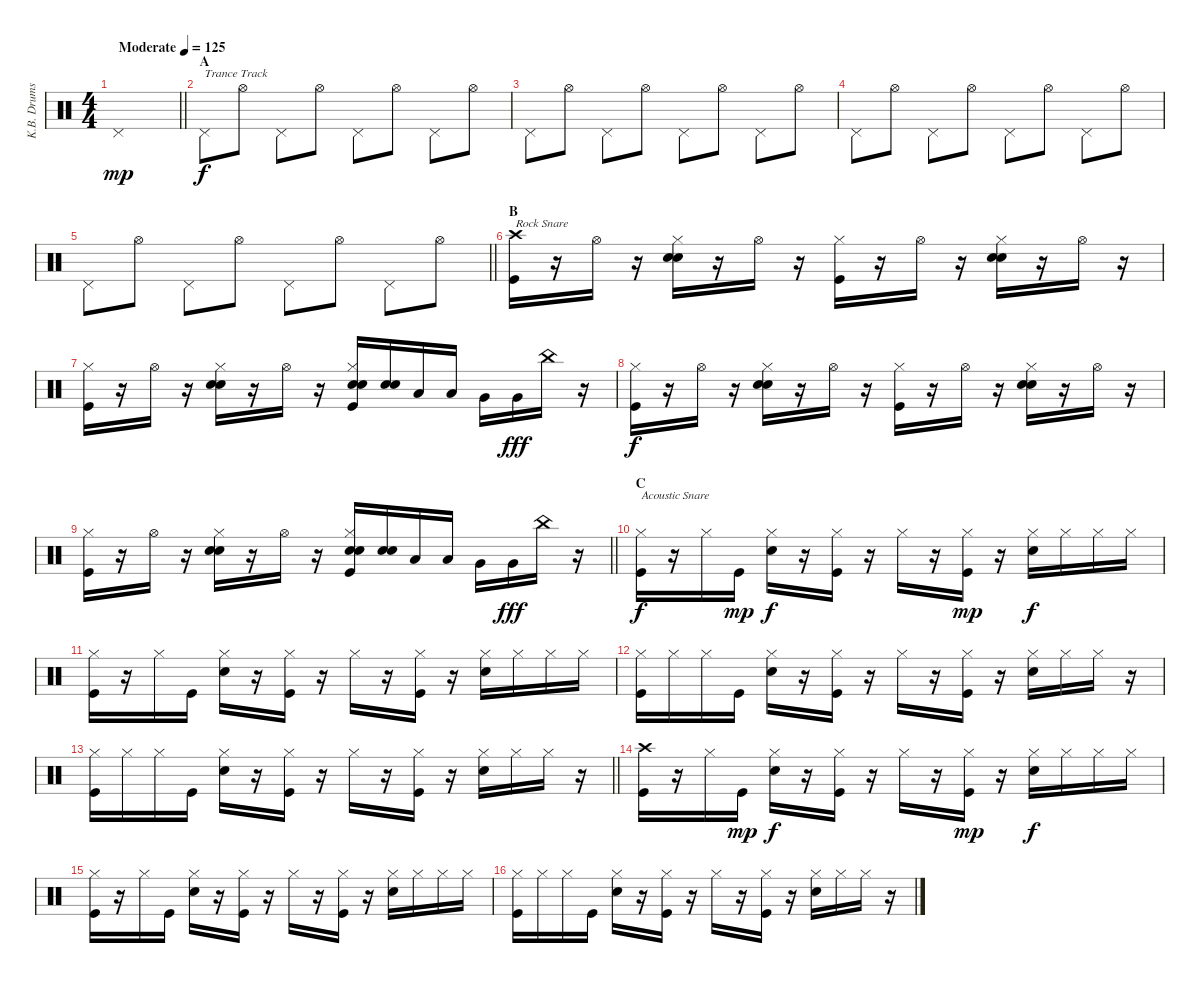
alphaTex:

\track ("K.B. Drums" "K.B. Drums") {instrument percussion}
\staff {score}
\articulation defaults
\ts (4 4)
\tempo (125 "Moderate")
\clef neutral
\barLineRight lightlight
\ks c "Pedal Hi-Hat (hit)".1{dy mp}
|
\section ("" "A")
"Pedal Hi-Hat (hit)".8{txt "Trance Track" dy f} "Hi-Hat (open)".8 "Pedal Hi-Hat (hit)".8 "Hi-Hat (open)".8 "Pedal Hi-Hat (hit)".8 "Hi-Hat (open)".8 "Pedal Hi-Hat (hit)".8 "Hi-Hat (open)".8 |
"Pedal Hi-Hat (hit)".8 "Hi-Hat (open)".8 "Pedal Hi-Hat (hit)".8 "Hi-Hat (open)".8 "Pedal Hi-Hat (hit)".8 "Hi-Hat (open)".8 "Pedal Hi-Hat (hit)".8 "Hi-Hat (open)".8 |
"Pedal Hi-Hat (hit)".8 "Hi-Hat (open)".8 "Pedal Hi-Hat (hit)".8 "Hi-Hat (open)".8 "Pedal Hi-Hat (hit)".8 "Hi-Hat (open)".8 "Pedal Hi-Hat (hit)".8 "Hi-Hat (open)".8 |
\barLineRight lightlight "Pedal Hi-Hat (hit)".8 "Hi-Hat (open)".8 "Pedal Hi-Hat (hit)".8 "Hi-Hat (open)".8 "Pedal Hi-Hat (hit)".8 "Hi-Hat (open)".8 "Pedal Hi-Hat (hit)".8 "Hi-Hat (open)".8
|
\section ("" "B")
("Crash high (hit)" "Kick (hit)").16{txt "Rock Snare"} r.16 "Hi-Hat (open)".16 r.16 ("Hi-Hat (closed)" "Snare (hit) 2" "Electric Snare (hit)").16 r.16 "Hi-Hat (open)".16 r.16 ("Hi-Hat (closed)" "Kick (hit)").16 r.16 "Hi-Hat (open)".16 r.16 ("Hi-Hat (closed)" "Snare (hit) 2" "Electric Snare (hit)").16 r.16 "Hi-Hat (open)".16 r.16 |
("Hi-Hat (closed)" "Kick (hit)").16 r.16 "Hi-Hat (open)".16 r.16 ("Hi-Hat (closed)" "Snare (hit) 2" "Electric Snare (hit)").16 r.16 "Hi-Hat (open)".16 r.16 ("Hi-Hat (closed)" "Snare (hit) 2" "Electric Snare (hit)" "Kick (hit)").16 ("Snare (hit) 2" "Electric Snare (hit)").16 "Low Tom (hit)".16 "Low Tom (hit)".16 "Very Low Tom (hit)".16 "Very Low Tom (hit)".16{dy fff} "China (hit)".16 r.16 |
("Hi-Hat (closed)" "Kick (hit)").16{dy f} r.16 "Hi-Hat (open)".16 r.16 ("Hi-Hat (closed)" "Snare (hit) 2" "Electric Snare (hit)").16 r.16 "Hi-Hat (open)".16 r.16 ("Hi-Hat (closed)" "Kick (hit)").16 r.16 "Hi-Hat (open)".16 r.16 ("Hi-Hat (closed)" "Snare (hit) 2" "Electric Snare (hit)").16 r.16 "Hi-Hat (open)".16 r.16 |
\barLineRight lightlight
("Hi-Hat (closed)" "Kick (hit)").16 r.16 "Hi-Hat (open)".16 r.16 ("Hi-Hat (closed)" "Snare (hit) 2" "Electric Snare (hit)").16 r.16 "Hi-Hat (open)".16 r.16 ("Hi-Hat (closed)" "Snare (hit) 2" "Electric Snare (hit)" "Kick (hit)").16 ("Snare (hit) 2" "Electric Snare (hit)").16 "Low Tom (hit)".16 "Low Tom (hit)".16 "Very Low Tom (hit)".16 "Very Low Tom (hit)".16{dy fff} "China (hit)".16 r.16 |
\section ("" "C")
("Hi-Hat (closed)" "Kick (hit)").16{txt "Acoustic Snare" dy f} r.16 "Hi-Hat (closed)".16 "Kick (hit)".16{dy mp} ("Hi-Hat (closed)" "Electric Snare (hit)").16{dy f} r.16 ("Hi-Hat (closed)" "Kick (hit)").16 r.16 "Hi-Hat (closed)".16 r.16 ("Hi-Hat (closed)" "Kick (hit)").16{dy mp} r.16 ("Hi-Hat (closed)" "Electric Snare (hit)").16{dy f} "Hi-Hat (closed)".16 "Hi-Hat (closed)".16 "Hi-Hat (closed)".16 |
("Hi-Hat (closed)" "Kick (hit)").16 r.16 "Hi-Hat (closed)".16 "Kick (hit)".16 ("Hi-Hat (closed)" "Electric Snare (hit)").16 r.16 ("Hi-Hat (closed)" "Kick (hit)").16 r.16 "Hi-Hat (closed)".16 r.16 ("Hi-Hat (closed)" "Kick (hit)").16 r.16 ("Hi-Hat (closed)" "Electric Snare (hit)").16 "Hi-Hat (closed)".16 "Hi-Hat (closed)".16 "Hi-Hat (closed)".16 |
("Hi-Hat (closed)" "Kick (hit)").16 "Hi-Hat (closed)".16 "Hi-Hat (closed)".16 "Kick (hit)".16 ("Hi-Hat (closed)" "Electric Snare (hit)").16 r.16 ("Hi-Hat (closed)" "Kick (hit)").16 r.16 "Hi-Hat (closed)".16 r.16 ("Hi-Hat (closed)" "Kick (hit)").16 r.16 ("Hi-Hat (closed)" "Electric Snare (hit)").16 "Hi-Hat (closed)".16 "Hi-Hat (closed)".16 r.16 |
\barLineRight lightlight
("Hi-Hat (closed)" "Kick (hit)").16 "Hi-Hat (closed)".16 "Hi-Hat (closed)".16 "Kick (hit)".16 ("Hi-Hat (closed)" "Electric Snare (hit)").16 r.16 ("Hi-Hat (closed)" "Kick (hit)").16 r.16 "Hi-Hat (closed)".16 r.16 ("Hi-Hat (closed)" "Kick (hit)").16 r.16 ("Hi-Hat (closed)" "Electric Snare (hit)").16 "Hi-Hat (closed)".16 "Hi-Hat (closed)".16 r.16 |
("Crash high (hit)" "Kick (hit)").16 r.16 "Hi-Hat (closed)".16 "Kick (hit)".16{dy mp} ("Hi-Hat (closed)" "Electric Snare (hit)").16{dy f} r.16 ("Hi-Hat (closed)" "Kick (hit)").16 r.16 "Hi-Hat (closed)".16 r.16 ("Hi-Hat (closed)" "Kick (hit)").16{dy mp} r.16 ("Hi-Hat (closed)" "Electric Snare (hit)").16{dy f} "Hi-Hat (closed)".16 "Hi-Hat (closed)".16 "Hi-Hat (closed)".16 |
("Hi-Hat (closed)" "Kick (hit)").16 r.16 "Hi-Hat (closed)".16 "Kick (hit)".16 ("Hi-Hat (closed)" "Electric Snare (hit)").16 r.16 ("Hi-Hat (closed)" "Kick (hit)").16 r.16 "Hi-Hat (closed)".16 r.16 ("Hi-Hat (closed)" "Kick (hit)").16 r.16 ("Hi-Hat (closed)" "Electric Snare (hit)").16 "Hi-Hat (closed)".16 "Hi-Hat (closed)".16 "Hi-Hat (closed)".16 |
("Hi-Hat (closed)" "Kick (hit)").16 "Hi-Hat (closed)".16 "Hi-Hat (closed)".16 "Kick (hit)".16 ("Hi-Hat (closed)" "Electric Snare (hit)").16 r.16 ("Hi-Hat (closed)" "Kick (hit)").16 r.16 "Hi-Hat (closed)".16 r.16 ("Hi-Hat (closed)" "Kick (hit)").16 r.16 ("Hi-Hat (closed)" "Electric Snare (hit)").16 "Hi-Hat (closed)".16 "Hi-Hat (closed)".16 r.16
